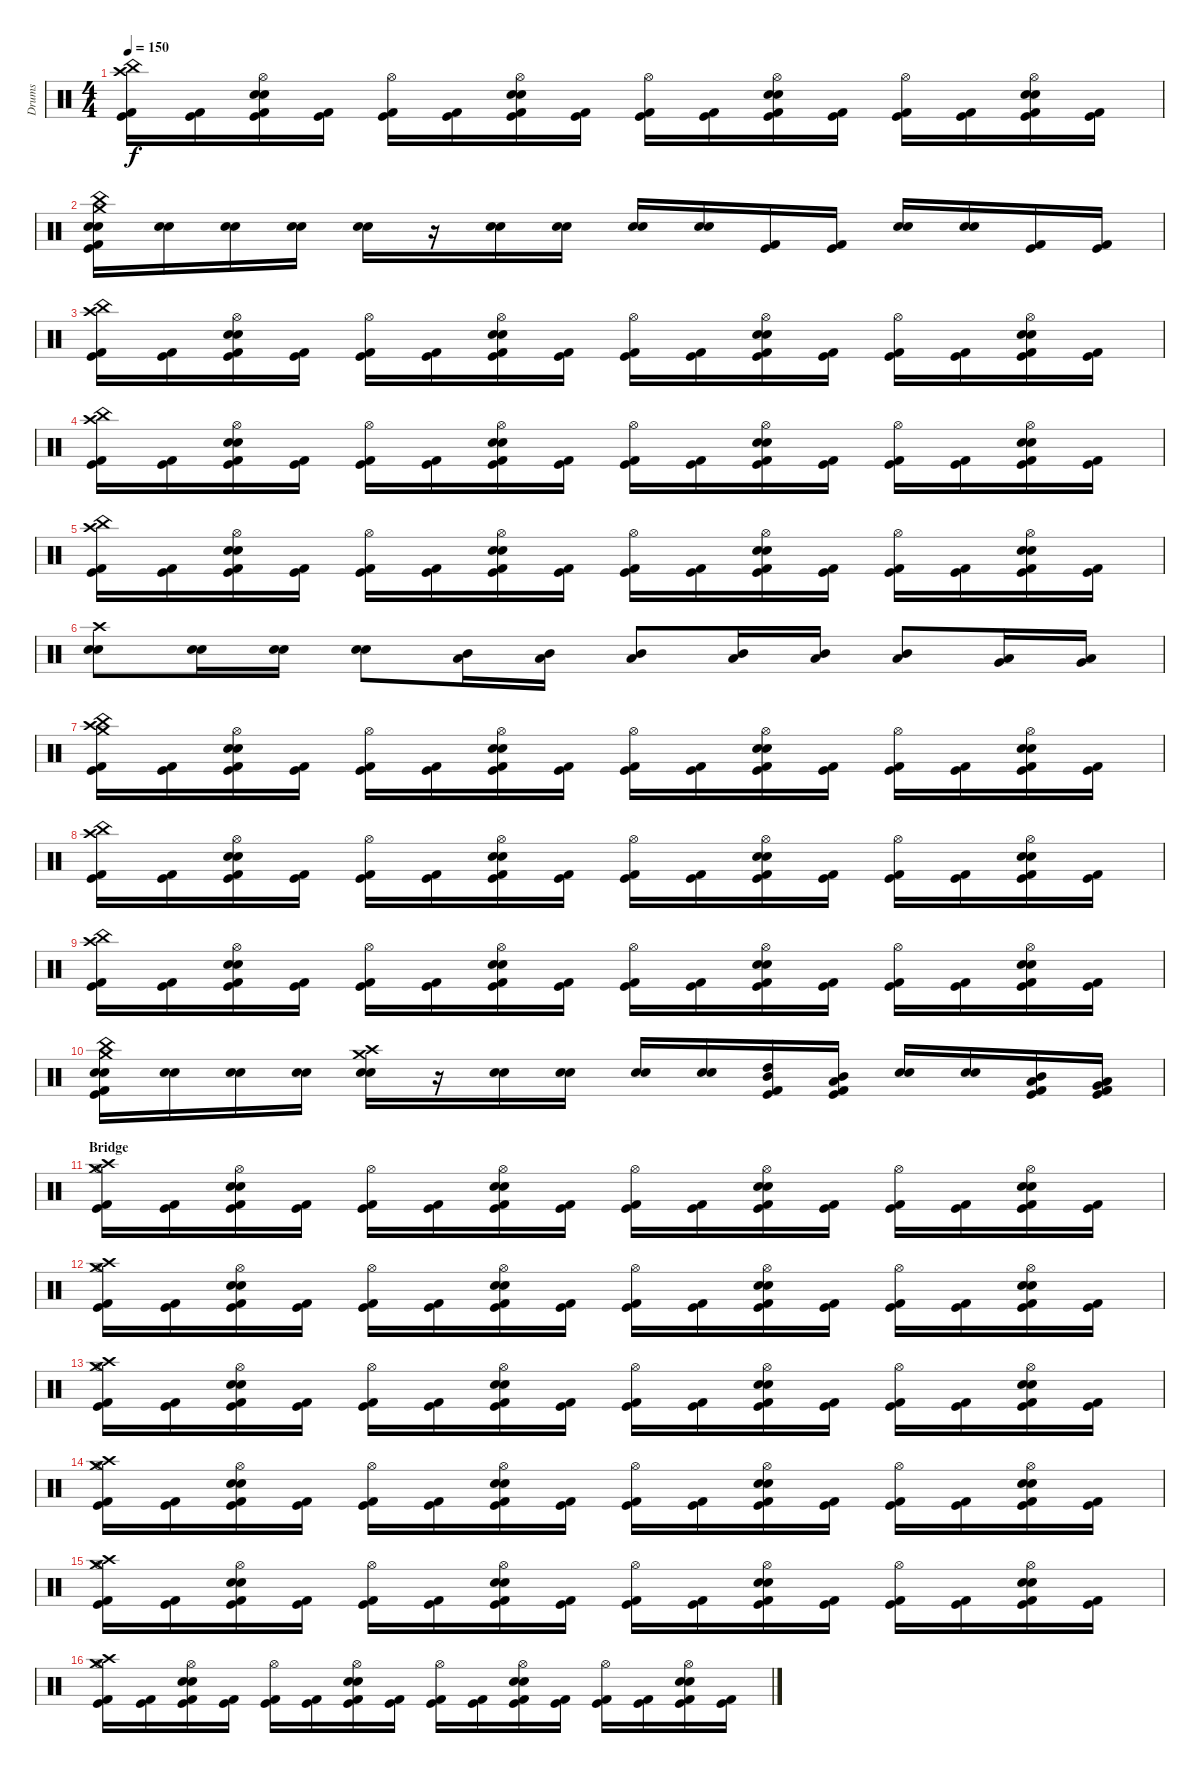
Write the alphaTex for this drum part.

\track ("Drums" "Drums") {instrument percussion}
\staff {score}
\articulation defaults
\ts (4 4)
\tempo 150
\clef neutral
\ks c
("China (hit)" "Crash high (hit)" "Kick (hit) 2" "Kick (hit)").16{dy f} ("Kick (hit) 2" "Kick (hit)").16 ("Hi-Hat (open)" "Electric Snare (hit)" "Snare (hit) 2" "Kick (hit) 2" "Kick (hit)").16 ("Kick (hit) 2" "Kick (hit)").16 ("Hi-Hat (open)" "Kick (hit) 2" "Kick (hit)").16 ("Kick (hit) 2" "Kick (hit)").16 ("Hi-Hat (open)" "Electric Snare (hit)" "Snare (hit) 2" "Kick (hit) 2" "Kick (hit)").16 ("Kick (hit) 2" "Kick (hit)").16 ("Hi-Hat (open)" "Kick (hit) 2" "Kick (hit)").16 ("Kick (hit) 2" "Kick (hit)").16 ("Hi-Hat (open)" "Electric Snare (hit)" "Snare (hit) 2" "Kick (hit) 2" "Kick (hit)").16 ("Kick (hit) 2" "Kick (hit)").16 ("Hi-Hat (open)" "Kick (hit) 2" "Kick (hit)").16 ("Kick (hit) 2" "Kick (hit)").16 ("Hi-Hat (open)" "Electric Snare (hit)" "Snare (hit) 2" "Kick (hit) 2" "Kick (hit)").16 ("Kick (hit) 2" "Kick (hit)").16 |
("Crash medium (hit)" "China (hit)" "Electric Snare (hit)" "Snare (hit) 2" "Kick (hit) 2" "Kick (hit)").16 ("Electric Snare (hit)" "Snare (hit) 2").16 ("Electric Snare (hit)" "Snare (hit) 2").16 ("Electric Snare (hit)" "Snare (hit) 2").16 ("Electric Snare (hit)" "Snare (hit) 2").16 r.16 ("Electric Snare (hit)" "Snare (hit) 2").16 ("Electric Snare (hit)" "Snare (hit) 2").16 ("Electric Snare (hit)" "Snare (hit) 2").16 ("Electric Snare (hit)" "Snare (hit) 2").16 ("Kick (hit) 2" "Kick (hit)").16 ("Kick (hit) 2" "Kick (hit)").16 ("Electric Snare (hit)" "Snare (hit) 2").16 ("Electric Snare (hit)" "Snare (hit) 2").16 ("Kick (hit)" "Kick (hit) 2").16 ("Kick (hit)" "Kick (hit) 2").16 |
("China (hit)" "Crash high (hit)" "Kick (hit) 2" "Kick (hit)").16 ("Kick (hit) 2" "Kick (hit)").16 ("Hi-Hat (open)" "Electric Snare (hit)" "Snare (hit) 2" "Kick (hit) 2" "Kick (hit)").16 ("Kick (hit) 2" "Kick (hit)").16 ("Hi-Hat (open)" "Kick (hit) 2" "Kick (hit)").16 ("Kick (hit) 2" "Kick (hit)").16 ("Hi-Hat (open)" "Electric Snare (hit)" "Snare (hit) 2" "Kick (hit) 2" "Kick (hit)").16 ("Kick (hit) 2" "Kick (hit)").16 ("Hi-Hat (open)" "Kick (hit) 2" "Kick (hit)").16 ("Kick (hit) 2" "Kick (hit)").16 ("Hi-Hat (open)" "Electric Snare (hit)" "Snare (hit) 2" "Kick (hit) 2" "Kick (hit)").16 ("Kick (hit) 2" "Kick (hit)").16 ("Hi-Hat (open)" "Kick (hit) 2" "Kick (hit)").16 ("Kick (hit) 2" "Kick (hit)").16 ("Hi-Hat (open)" "Electric Snare (hit)" "Snare (hit) 2" "Kick (hit) 2" "Kick (hit)").16 ("Kick (hit) 2" "Kick (hit)").16 |
("China (hit)" "Crash high (hit)" "Kick (hit) 2" "Kick (hit)").16 ("Kick (hit) 2" "Kick (hit)").16 ("Hi-Hat (open)" "Electric Snare (hit)" "Snare (hit) 2" "Kick (hit) 2" "Kick (hit)").16 ("Kick (hit) 2" "Kick (hit)").16 ("Hi-Hat (open)" "Kick (hit) 2" "Kick (hit)").16 ("Kick (hit) 2" "Kick (hit)").16 ("Hi-Hat (open)" "Electric Snare (hit)" "Snare (hit) 2" "Kick (hit) 2" "Kick (hit)").16 ("Kick (hit) 2" "Kick (hit)").16 ("Hi-Hat (open)" "Kick (hit) 2" "Kick (hit)").16 ("Kick (hit) 2" "Kick (hit)").16 ("Hi-Hat (open)" "Electric Snare (hit)" "Snare (hit) 2" "Kick (hit) 2" "Kick (hit)").16 ("Kick (hit) 2" "Kick (hit)").16 ("Hi-Hat (open)" "Kick (hit) 2" "Kick (hit)").16 ("Kick (hit) 2" "Kick (hit)").16 ("Hi-Hat (open)" "Electric Snare (hit)" "Snare (hit) 2" "Kick (hit) 2" "Kick (hit)").16 ("Kick (hit) 2" "Kick (hit)").16 |
("China (hit)" "Crash high (hit)" "Kick (hit) 2" "Kick (hit)").16 ("Kick (hit) 2" "Kick (hit)").16 ("Hi-Hat (open)" "Electric Snare (hit)" "Snare (hit) 2" "Kick (hit) 2" "Kick (hit)").16 ("Kick (hit) 2" "Kick (hit)").16 ("Hi-Hat (open)" "Kick (hit) 2" "Kick (hit)").16 ("Kick (hit) 2" "Kick (hit)").16 ("Hi-Hat (open)" "Electric Snare (hit)" "Snare (hit) 2" "Kick (hit) 2" "Kick (hit)").16 ("Kick (hit) 2" "Kick (hit)").16 ("Hi-Hat (open)" "Kick (hit) 2" "Kick (hit)").16 ("Kick (hit) 2" "Kick (hit)").16 ("Hi-Hat (open)" "Electric Snare (hit)" "Snare (hit) 2" "Kick (hit) 2" "Kick (hit)").16 ("Kick (hit) 2" "Kick (hit)").16 ("Hi-Hat (open)" "Kick (hit) 2" "Kick (hit)").16 ("Kick (hit) 2" "Kick (hit)").16 ("Hi-Hat (open)" "Electric Snare (hit)" "Snare (hit) 2" "Kick (hit) 2" "Kick (hit)").16 ("Kick (hit) 2" "Kick (hit)").16 |
("Crash high (hit)" "Electric Snare (hit)" "Snare (hit) 2").8 ("Electric Snare (hit)" "Snare (hit) 2").16 ("Electric Snare (hit)" "Snare (hit) 2").16 ("Electric Snare (hit)" "Snare (hit) 2").8 ("Mid Tom (hit)" "Low Tom (hit)").16 ("Low Tom (hit)" "Mid Tom (hit)").16 ("Low Tom (hit)" "Mid Tom (hit)").8 ("Low Tom (hit)" "Mid Tom (hit)").16 ("Low Tom (hit)" "Mid Tom (hit)").16 ("Mid Tom (hit)" "Low Tom (hit)").8 ("Low Floor Tom (hit)" "Very Low Tom (hit)").16 ("Low Floor Tom (hit)" "Very Low Tom (hit)").16 |
("China (hit)" "Crash high (hit)" "Crash medium (hit)" "Kick (hit) 2" "Kick (hit)").16 ("Kick (hit) 2" "Kick (hit)").16 ("Hi-Hat (open)" "Electric Snare (hit)" "Snare (hit) 2" "Kick (hit) 2" "Kick (hit)").16 ("Kick (hit) 2" "Kick (hit)").16 ("Hi-Hat (open)" "Kick (hit) 2" "Kick (hit)").16 ("Kick (hit) 2" "Kick (hit)").16 ("Hi-Hat (open)" "Electric Snare (hit)" "Snare (hit) 2" "Kick (hit) 2" "Kick (hit)").16 ("Kick (hit) 2" "Kick (hit)").16 ("Hi-Hat (open)" "Kick (hit) 2" "Kick (hit)").16 ("Kick (hit) 2" "Kick (hit)").16 ("Hi-Hat (open)" "Electric Snare (hit)" "Snare (hit) 2" "Kick (hit) 2" "Kick (hit)").16 ("Kick (hit) 2" "Kick (hit)").16 ("Hi-Hat (open)" "Kick (hit) 2" "Kick (hit)").16 ("Kick (hit) 2" "Kick (hit)").16 ("Hi-Hat (open)" "Electric Snare (hit)" "Snare (hit) 2" "Kick (hit) 2" "Kick (hit)").16 ("Kick (hit) 2" "Kick (hit)").16 |
("China (hit)" "Crash high (hit)" "Kick (hit) 2" "Kick (hit)").16 ("Kick (hit) 2" "Kick (hit)").16 ("Hi-Hat (open)" "Electric Snare (hit)" "Snare (hit) 2" "Kick (hit) 2" "Kick (hit)").16 ("Kick (hit) 2" "Kick (hit)").16 ("Hi-Hat (open)" "Kick (hit) 2" "Kick (hit)").16 ("Kick (hit) 2" "Kick (hit)").16 ("Hi-Hat (open)" "Electric Snare (hit)" "Snare (hit) 2" "Kick (hit) 2" "Kick (hit)").16 ("Kick (hit) 2" "Kick (hit)").16 ("Hi-Hat (open)" "Kick (hit) 2" "Kick (hit)").16 ("Kick (hit) 2" "Kick (hit)").16 ("Hi-Hat (open)" "Electric Snare (hit)" "Snare (hit) 2" "Kick (hit) 2" "Kick (hit)").16 ("Kick (hit) 2" "Kick (hit)").16 ("Hi-Hat (open)" "Kick (hit) 2" "Kick (hit)").16 ("Kick (hit) 2" "Kick (hit)").16 ("Hi-Hat (open)" "Electric Snare (hit)" "Snare (hit) 2" "Kick (hit) 2" "Kick (hit)").16 ("Kick (hit) 2" "Kick (hit)").16 |
("China (hit)" "Crash high (hit)" "Kick (hit) 2" "Kick (hit)").16 ("Kick (hit) 2" "Kick (hit)").16 ("Hi-Hat (open)" "Electric Snare (hit)" "Snare (hit) 2" "Kick (hit) 2" "Kick (hit)").16 ("Kick (hit) 2" "Kick (hit)").16 ("Hi-Hat (open)" "Kick (hit) 2" "Kick (hit)").16 ("Kick (hit) 2" "Kick (hit)").16 ("Hi-Hat (open)" "Electric Snare (hit)" "Snare (hit) 2" "Kick (hit) 2" "Kick (hit)").16 ("Kick (hit) 2" "Kick (hit)").16 ("Hi-Hat (open)" "Kick (hit) 2" "Kick (hit)").16 ("Kick (hit) 2" "Kick (hit)").16 ("Hi-Hat (open)" "Electric Snare (hit)" "Snare (hit) 2" "Kick (hit) 2" "Kick (hit)").16 ("Kick (hit) 2" "Kick (hit)").16 ("Hi-Hat (open)" "Kick (hit) 2" "Kick (hit)").16 ("Kick (hit) 2" "Kick (hit)").16 ("Hi-Hat (open)" "Electric Snare (hit)" "Snare (hit) 2" "Kick (hit) 2" "Kick (hit)").16 ("Kick (hit) 2" "Kick (hit)").16 |
("Crash medium (hit)" "China (hit)" "Electric Snare (hit)" "Snare (hit) 2" "Kick (hit) 2" "Kick (hit)").16 ("Electric Snare (hit)" "Snare (hit) 2").16 ("Electric Snare (hit)" "Snare (hit) 2").16 ("Electric Snare (hit)" "Snare (hit) 2").16 ("Crash medium (hit)" "Crash high (hit)" "Electric Snare (hit)" "Snare (hit) 2").16 r.16 ("Electric Snare (hit)" "Snare (hit) 2").16 ("Electric Snare (hit)" "Snare (hit) 2").16 ("Electric Snare (hit)" "Snare (hit) 2").16 ("Electric Snare (hit)" "Snare (hit) 2").16 ("Mid Tom (hit)" "High Tom (hit)" "Kick (hit) 2" "Kick (hit)").16 ("Low Tom (hit)" "Mid Tom (hit)" "Kick (hit) 2" "Kick (hit)").16 ("Electric Snare (hit)" "Snare (hit) 2").16 ("Electric Snare (hit)" "Snare (hit) 2").16 ("Low Tom (hit)" "Mid Tom (hit)" "Kick (hit)" "Kick (hit) 2").16 ("Low Tom (hit)" "Very Low Tom (hit)" "Kick (hit)" "Kick (hit) 2").16 |
\section ("" "Bridge")
("Crash high (hit)" "Hi-Hat (open)" "Crash medium (hit)" "Kick (hit)" "Kick (hit) 2").16 ("Kick (hit)" "Kick (hit) 2").16 ("Hi-Hat (open)" "Electric Snare (hit)" "Snare (hit) 2" "Kick (hit)" "Kick (hit) 2").16 ("Kick (hit)" "Kick (hit) 2").16 ("Hi-Hat (open)" "Kick (hit)" "Kick (hit) 2").16 ("Kick (hit)" "Kick (hit) 2").16 ("Hi-Hat (open)" "Electric Snare (hit)" "Snare (hit) 2" "Kick (hit)" "Kick (hit) 2").16 ("Kick (hit)" "Kick (hit) 2").16 ("Hi-Hat (open)" "Kick (hit)" "Kick (hit) 2").16 ("Kick (hit)" "Kick (hit) 2").16 ("Hi-Hat (open)" "Electric Snare (hit)" "Snare (hit) 2" "Kick (hit)" "Kick (hit) 2").16 ("Kick (hit)" "Kick (hit) 2").16 ("Hi-Hat (open)" "Kick (hit)" "Kick (hit) 2").16 ("Kick (hit)" "Kick (hit) 2").16 ("Hi-Hat (open)" "Electric Snare (hit)" "Snare (hit) 2" "Kick (hit)" "Kick (hit) 2").16 ("Kick (hit)" "Kick (hit) 2").16 |
("Crash high (hit)" "Hi-Hat (open)" "Crash medium (hit)" "Kick (hit)" "Kick (hit) 2").16 ("Kick (hit)" "Kick (hit) 2").16 ("Hi-Hat (open)" "Electric Snare (hit)" "Snare (hit) 2" "Kick (hit)" "Kick (hit) 2").16 ("Kick (hit)" "Kick (hit) 2").16 ("Hi-Hat (open)" "Kick (hit)" "Kick (hit) 2").16 ("Kick (hit)" "Kick (hit) 2").16 ("Hi-Hat (open)" "Electric Snare (hit)" "Snare (hit) 2" "Kick (hit)" "Kick (hit) 2").16 ("Kick (hit)" "Kick (hit) 2").16 ("Hi-Hat (open)" "Kick (hit)" "Kick (hit) 2").16 ("Kick (hit)" "Kick (hit) 2").16 ("Hi-Hat (open)" "Electric Snare (hit)" "Snare (hit) 2" "Kick (hit)" "Kick (hit) 2").16 ("Kick (hit)" "Kick (hit) 2").16 ("Hi-Hat (open)" "Kick (hit)" "Kick (hit) 2").16 ("Kick (hit)" "Kick (hit) 2").16 ("Hi-Hat (open)" "Electric Snare (hit)" "Snare (hit) 2" "Kick (hit)" "Kick (hit) 2").16 ("Kick (hit)" "Kick (hit) 2").16 |
("Crash high (hit)" "Hi-Hat (open)" "Crash medium (hit)" "Kick (hit)" "Kick (hit) 2").16 ("Kick (hit)" "Kick (hit) 2").16 ("Hi-Hat (open)" "Electric Snare (hit)" "Snare (hit) 2" "Kick (hit)" "Kick (hit) 2").16 ("Kick (hit)" "Kick (hit) 2").16 ("Hi-Hat (open)" "Kick (hit)" "Kick (hit) 2").16 ("Kick (hit)" "Kick (hit) 2").16 ("Hi-Hat (open)" "Electric Snare (hit)" "Snare (hit) 2" "Kick (hit)" "Kick (hit) 2").16 ("Kick (hit)" "Kick (hit) 2").16 ("Hi-Hat (open)" "Kick (hit)" "Kick (hit) 2").16 ("Kick (hit)" "Kick (hit) 2").16 ("Hi-Hat (open)" "Electric Snare (hit)" "Snare (hit) 2" "Kick (hit)" "Kick (hit) 2").16 ("Kick (hit)" "Kick (hit) 2").16 ("Hi-Hat (open)" "Kick (hit)" "Kick (hit) 2").16 ("Kick (hit)" "Kick (hit) 2").16 ("Hi-Hat (open)" "Electric Snare (hit)" "Snare (hit) 2" "Kick (hit)" "Kick (hit) 2").16 ("Kick (hit)" "Kick (hit) 2").16 |
("Crash high (hit)" "Hi-Hat (open)" "Crash medium (hit)" "Kick (hit)" "Kick (hit) 2").16 ("Kick (hit)" "Kick (hit) 2").16 ("Hi-Hat (open)" "Electric Snare (hit)" "Snare (hit) 2" "Kick (hit)" "Kick (hit) 2").16 ("Kick (hit)" "Kick (hit) 2").16 ("Hi-Hat (open)" "Kick (hit)" "Kick (hit) 2").16 ("Kick (hit)" "Kick (hit) 2").16 ("Hi-Hat (open)" "Electric Snare (hit)" "Snare (hit) 2" "Kick (hit)" "Kick (hit) 2").16 ("Kick (hit)" "Kick (hit) 2").16 ("Hi-Hat (open)" "Kick (hit)" "Kick (hit) 2").16 ("Kick (hit)" "Kick (hit) 2").16 ("Hi-Hat (open)" "Electric Snare (hit)" "Snare (hit) 2" "Kick (hit)" "Kick (hit) 2").16 ("Kick (hit)" "Kick (hit) 2").16 ("Hi-Hat (open)" "Kick (hit)" "Kick (hit) 2").16 ("Kick (hit)" "Kick (hit) 2").16 ("Hi-Hat (open)" "Electric Snare (hit)" "Snare (hit) 2" "Kick (hit)" "Kick (hit) 2").16 ("Kick (hit)" "Kick (hit) 2").16 |
("Crash high (hit)" "Hi-Hat (open)" "Crash medium (hit)" "Kick (hit)" "Kick (hit) 2").16 ("Kick (hit)" "Kick (hit) 2").16 ("Hi-Hat (open)" "Electric Snare (hit)" "Snare (hit) 2" "Kick (hit)" "Kick (hit) 2").16 ("Kick (hit)" "Kick (hit) 2").16 ("Hi-Hat (open)" "Kick (hit)" "Kick (hit) 2").16 ("Kick (hit)" "Kick (hit) 2").16 ("Hi-Hat (open)" "Electric Snare (hit)" "Snare (hit) 2" "Kick (hit)" "Kick (hit) 2").16 ("Kick (hit)" "Kick (hit) 2").16 ("Hi-Hat (open)" "Kick (hit)" "Kick (hit) 2").16 ("Kick (hit)" "Kick (hit) 2").16 ("Hi-Hat (open)" "Electric Snare (hit)" "Snare (hit) 2" "Kick (hit)" "Kick (hit) 2").16 ("Kick (hit)" "Kick (hit) 2").16 ("Hi-Hat (open)" "Kick (hit)" "Kick (hit) 2").16 ("Kick (hit)" "Kick (hit) 2").16 ("Hi-Hat (open)" "Electric Snare (hit)" "Snare (hit) 2" "Kick (hit)" "Kick (hit) 2").16 ("Kick (hit)" "Kick (hit) 2").16 |
("Crash high (hit)" "Hi-Hat (open)" "Crash medium (hit)" "Kick (hit)" "Kick (hit) 2").16 ("Kick (hit)" "Kick (hit) 2").16 ("Hi-Hat (open)" "Electric Snare (hit)" "Snare (hit) 2" "Kick (hit)" "Kick (hit) 2").16 ("Kick (hit)" "Kick (hit) 2").16 ("Hi-Hat (open)" "Kick (hit)" "Kick (hit) 2").16 ("Kick (hit)" "Kick (hit) 2").16 ("Hi-Hat (open)" "Electric Snare (hit)" "Snare (hit) 2" "Kick (hit)" "Kick (hit) 2").16 ("Kick (hit)" "Kick (hit) 2").16 ("Hi-Hat (open)" "Kick (hit)" "Kick (hit) 2").16 ("Kick (hit)" "Kick (hit) 2").16 ("Hi-Hat (open)" "Electric Snare (hit)" "Snare (hit) 2" "Kick (hit)" "Kick (hit) 2").16 ("Kick (hit)" "Kick (hit) 2").16 ("Hi-Hat (open)" "Kick (hit)" "Kick (hit) 2").16 ("Kick (hit)" "Kick (hit) 2").16 ("Hi-Hat (open)" "Electric Snare (hit)" "Snare (hit) 2" "Kick (hit)" "Kick (hit) 2").16 ("Kick (hit)" "Kick (hit) 2").16
